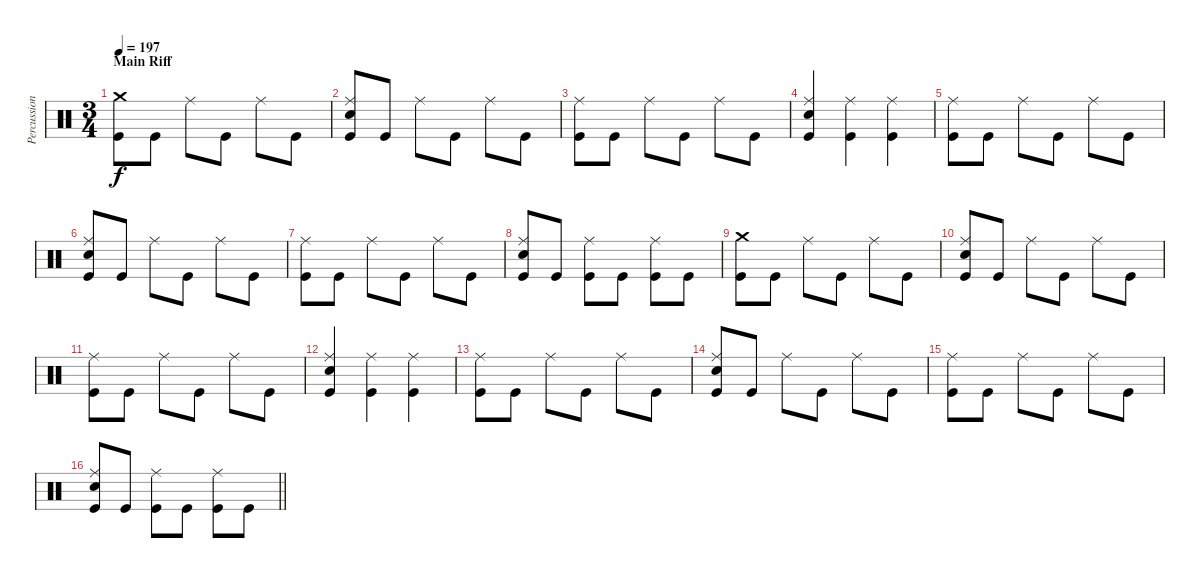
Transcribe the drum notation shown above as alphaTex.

\track ("Percussion" "Percussion") {instrument percussion}
\staff {score}
\articulation defaults
\ts (3 4)
\section ("" "Main Riff")
\tempo 197
\clef neutral
\ks c
("Crash medium (hit)" "Kick (hit)").8{dy f} "Kick (hit)".8 "Ride (middle)".8 "Kick (hit)".8 "Ride (middle)".8 "Kick (hit)".8 |
("Ride (middle)" "Electric Snare (hit)" "Kick (hit)").8 "Kick (hit)".8 "Ride (middle)".8 "Kick (hit)".8 "Ride (middle)".8 "Kick (hit)".8 |
("Ride (middle)" "Kick (hit)").8 "Kick (hit)".8 "Ride (middle)".8 "Kick (hit)".8 "Ride (middle)".8 "Kick (hit)".8 |
("Ride (middle)" "Electric Snare (hit)" "Kick (hit)").4 ("Ride (middle)" "Kick (hit)").4 ("Ride (middle)" "Kick (hit)").4 |
("Ride (middle)" "Kick (hit)").8 "Kick (hit)".8 "Ride (middle)".8 "Kick (hit)".8 "Ride (middle)".8 "Kick (hit)".8 |
("Ride (middle)" "Electric Snare (hit)" "Kick (hit)").8 "Kick (hit)".8 "Ride (middle)".8 "Kick (hit)".8 "Ride (middle)".8 "Kick (hit)".8 |
("Ride (middle)" "Kick (hit)").8 "Kick (hit)".8 "Ride (middle)".8 "Kick (hit)".8 "Ride (middle)".8 "Kick (hit)".8 |
("Ride (middle)" "Electric Snare (hit)" "Kick (hit)").8 "Kick (hit)".8 ("Ride (middle)" "Kick (hit)").8 "Kick (hit)".8 ("Ride (middle)" "Kick (hit)").8 "Kick (hit)".8 |
("Crash medium (hit)" "Kick (hit)").8 "Kick (hit)".8 "Ride (middle)".8 "Kick (hit)".8 "Ride (middle)".8 "Kick (hit)".8 |
("Ride (middle)" "Electric Snare (hit)" "Kick (hit)").8 "Kick (hit)".8 "Ride (middle)".8 "Kick (hit)".8 "Ride (middle)".8 "Kick (hit)".8 |
("Ride (middle)" "Kick (hit)").8 "Kick (hit)".8 "Ride (middle)".8 "Kick (hit)".8 "Ride (middle)".8 "Kick (hit)".8 |
("Ride (middle)" "Electric Snare (hit)" "Kick (hit)").4 ("Ride (middle)" "Kick (hit)").4 ("Ride (middle)" "Kick (hit)").4 |
("Ride (middle)" "Kick (hit)").8 "Kick (hit)".8 "Ride (middle)".8 "Kick (hit)".8 "Ride (middle)".8 "Kick (hit)".8 |
("Ride (middle)" "Electric Snare (hit)" "Kick (hit)").8 "Kick (hit)".8 "Ride (middle)".8 "Kick (hit)".8 "Ride (middle)".8 "Kick (hit)".8 |
("Ride (middle)" "Kick (hit)").8 "Kick (hit)".8 "Ride (middle)".8 "Kick (hit)".8 "Ride (middle)".8 "Kick (hit)".8 |
\barLineRight lightlight
("Ride (middle)" "Electric Snare (hit)" "Kick (hit)").8 "Kick (hit)".8 ("Ride (middle)" "Kick (hit)").8 "Kick (hit)".8 ("Ride (middle)" "Kick (hit)").8 "Kick (hit)".8
